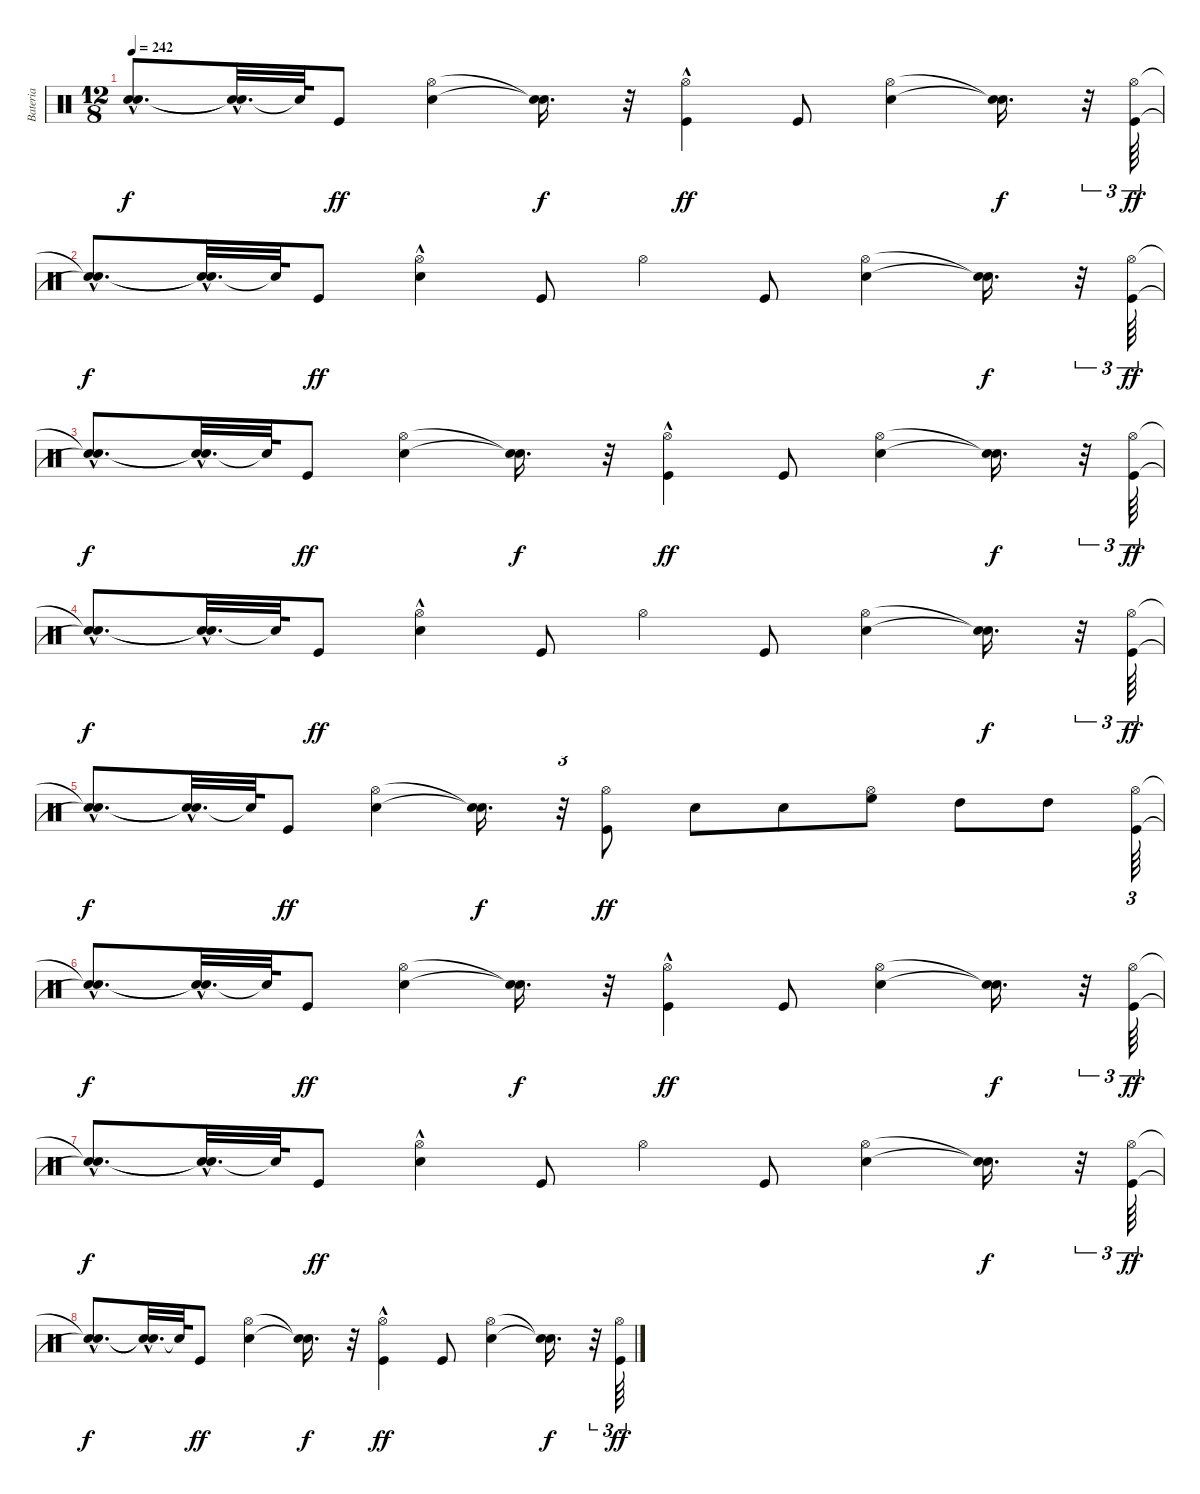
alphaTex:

\track ("Bateria" "Bateria") {instrument percussion}
\staff {score}
\articulation defaults
\ts (12 8)
\tempo 242
\clef neutral
\ks c
("Snare (hit)"{hac t} "Snare (hit)"{hac t}).8{d dy f} ("Snare (hit)"{t} "Snare (hit)"{hac t}).32{d} "Snare (hit)"{t}.64 "Kick (hit)".8{dy ff} ("Snare (hit) 2" "Hi-Hat (open)").4 ("Snare (hit)"{t} "Snare (hit)"{t}).16{d dy f} r.32 ("Kick (hit)"{hac} "Hi-Hat (open)").4{dy ff} "Kick (hit)".8 ("Snare (hit) 2" "Hi-Hat (open)").4 ("Snare (hit)"{t} "Snare (hit)"{t}).16{d dy f} r.32{tu (3 2)} ("Kick (hit)" "Hi-Hat (open)").64{tu (3 2) dy ff} |
("Snare (hit)"{hac t} "Snare (hit)"{hac t}).8{d dy f} ("Snare (hit)"{t} "Snare (hit)"{hac t}).32{d} "Snare (hit)"{t}.64 "Kick (hit)".8{dy ff} ("Snare (hit) 2"{hac} "Hi-Hat (open)").4 "Kick (hit)".8 "Hi-Hat (open)".4 "Kick (hit)".8 ("Snare (hit) 2" "Hi-Hat (open)").4 ("Snare (hit)"{t} "Snare (hit)"{t}).16{d dy f} r.32{tu (3 2)} ("Kick (hit)" "Hi-Hat (open)").64{tu (3 2) dy ff} |
("Snare (hit)"{hac t} "Snare (hit)"{hac t}).8{d dy f} ("Snare (hit)"{t} "Snare (hit)"{hac t}).32{d} "Snare (hit)"{t}.64 "Kick (hit)".8{dy ff} ("Snare (hit) 2" "Hi-Hat (open)").4 ("Snare (hit)"{t} "Snare (hit)"{t}).16{d dy f} r.32 ("Kick (hit)"{hac} "Hi-Hat (open)").4{dy ff} "Kick (hit)".8 ("Snare (hit) 2" "Hi-Hat (open)").4 ("Snare (hit)"{t} "Snare (hit)"{t}).16{d dy f} r.32{tu (3 2)} ("Kick (hit)" "Hi-Hat (open)").64{tu (3 2) dy ff} |
("Snare (hit)"{hac t} "Snare (hit)"{hac t}).8{d dy f} ("Snare (hit)"{t} "Snare (hit)"{hac t}).32{d} "Snare (hit)"{t}.64 "Kick (hit)".8{dy ff} ("Snare (hit) 2"{hac} "Hi-Hat (open)").4 "Kick (hit)".8 "Hi-Hat (open)".4 "Kick (hit)".8 ("Snare (hit) 2" "Hi-Hat (open)").4 ("Snare (hit)"{t} "Snare (hit)"{t}).16{d dy f} r.32{tu (3 2)} ("Kick (hit)" "Hi-Hat (open)").64{tu (3 2) dy ff} |
("Snare (hit)"{hac t} "Snare (hit)"{hac t}).8{d dy f} ("Snare (hit)"{t} "Snare (hit)"{hac t}).32{d} "Snare (hit)"{t}.64 "Kick (hit)".8{dy ff} ("Snare (hit) 2" "Hi-Hat (open)").4 ("Snare (hit)"{t} "Snare (hit)"{t}).16{d dy f} r.32{tu (3 2)} ("Kick (hit)" "Hi-Hat (open)").8{dy ff} "Snare (hit) 2".8 "Snare (hit) 2".8 ("Hi-Hat (open)" "High Floor Tom (hit)").8 "High Tom (hit)".8 "High Tom (hit)".8 ("Kick (hit)" "Hi-Hat (open)").64{tu (3 2)} |
("Snare (hit)"{hac t} "Snare (hit)"{hac t}).8{d dy f} ("Snare (hit)"{t} "Snare (hit)"{hac t}).32{d} "Snare (hit)"{t}.64 "Kick (hit)".8{dy ff} ("Snare (hit) 2" "Hi-Hat (open)").4 ("Snare (hit)"{t} "Snare (hit)"{t}).16{d dy f} r.32 ("Kick (hit)"{hac} "Hi-Hat (open)").4{dy ff} "Kick (hit)".8 ("Snare (hit) 2" "Hi-Hat (open)").4 ("Snare (hit)"{t} "Snare (hit)"{t}).16{d dy f} r.32{tu (3 2)} ("Kick (hit)" "Hi-Hat (open)").64{tu (3 2) dy ff} |
("Snare (hit)"{hac t} "Snare (hit)"{hac t}).8{d dy f} ("Snare (hit)"{t} "Snare (hit)"{hac t}).32{d} "Snare (hit)"{t}.64 "Kick (hit)".8{dy ff} ("Snare (hit) 2"{hac} "Hi-Hat (open)").4 "Kick (hit)".8 "Hi-Hat (open)".4 "Kick (hit)".8 ("Snare (hit) 2" "Hi-Hat (open)").4 ("Snare (hit)"{t} "Snare (hit)"{t}).16{d dy f} r.32{tu (3 2)} ("Kick (hit)" "Hi-Hat (open)").64{tu (3 2) dy ff} |
("Snare (hit)"{hac t} "Snare (hit)"{hac t}).8{d dy f} ("Snare (hit)"{t} "Snare (hit)"{hac t}).32{d} "Snare (hit)"{t}.64 "Kick (hit)".8{dy ff} ("Snare (hit) 2" "Hi-Hat (open)").4 ("Snare (hit)"{t} "Snare (hit)"{t}).16{d dy f} r.32 ("Kick (hit)"{hac} "Hi-Hat (open)").4{dy ff} "Kick (hit)".8 ("Snare (hit) 2" "Hi-Hat (open)").4 ("Snare (hit)"{t} "Snare (hit)"{t}).16{d dy f} r.32{tu (3 2)} ("Kick (hit)" "Hi-Hat (open)").64{tu (3 2) dy ff}
